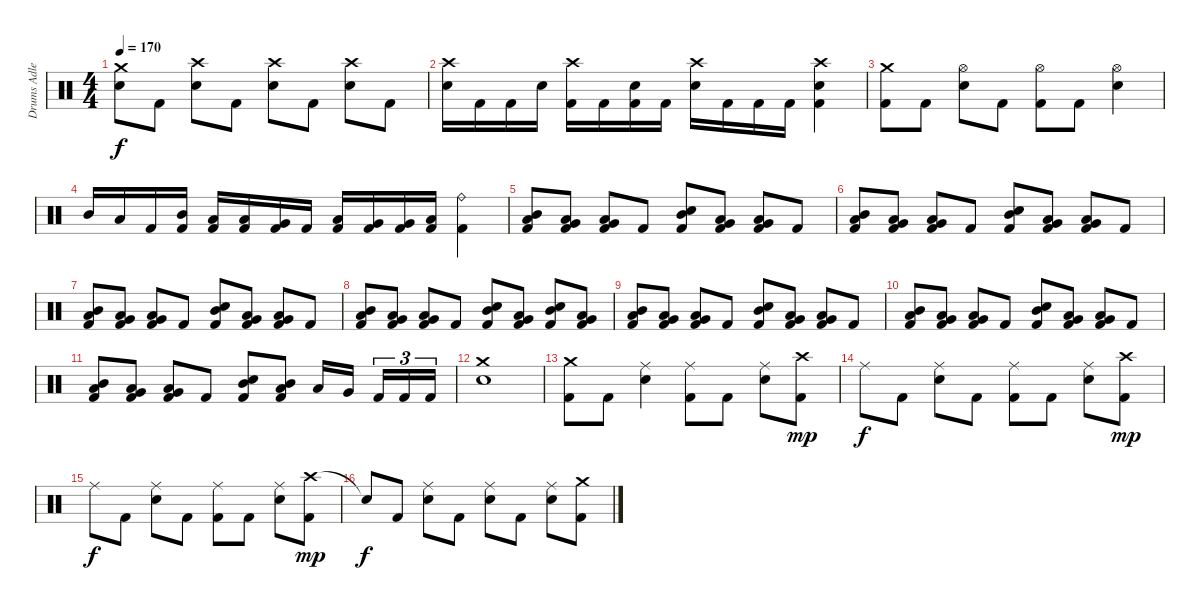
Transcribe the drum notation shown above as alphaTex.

\track ("Drums Adler" "Drums Adle") {instrument percussion}
\staff {score}
\articulation defaults
\ts (4 4)
\tempo 170
\clef neutral
\ks c
("Crash medium (hit)" "Snare (hit) 2").8{dy f} "Kick (hit) 2".8 ("Crash high (hit)" "Snare (hit) 2").8 "Kick (hit) 2".8 ("Crash high (hit)" "Snare (hit) 2").8 "Kick (hit) 2".8 ("Crash high (hit)" "Snare (hit) 2").8 "Kick (hit) 2".8 |
("Crash high (hit)" "Snare (hit) 2").16 "Kick (hit) 2".16 "Kick (hit) 2".16 "Snare (hit) 2".16 ("Crash high (hit)" "Kick (hit) 2").16 "Kick (hit) 2".16 ("Snare (hit) 2" "Kick (hit) 2").16 "Kick (hit) 2".16 ("Crash high (hit)" "Snare (hit) 2").16 "Kick (hit) 2".16 "Kick (hit) 2".16 "Kick (hit) 2".16 ("Crash high (hit)" "Snare (hit) 2" "Kick (hit) 2").4 |
("Crash medium (hit)" "Kick (hit) 2").8 "Kick (hit) 2".8 ("Hi-Hat (open)" "Snare (hit) 2").8 "Kick (hit) 2".8 ("Hi-Hat (open)" "Kick (hit) 2").8 "Kick (hit) 2".8 ("Hi-Hat (open)" "Snare (hit) 2").4 |
"Mid Tom (hit)".16 "Low Tom (hit)".16 "Kick (hit) 2".16 ("Mid Tom (hit)" "Kick (hit) 2").16 ("Low Tom (hit)" "Kick (hit) 2").16 ("Low Tom (hit)" "Kick (hit) 2").16 ("Very Low Tom (hit)" "Kick (hit) 2").16 "Kick (hit) 2".16 ("Low Tom (hit)" "Kick (hit) 2").16 ("Very Low Tom (hit)" "Kick (hit) 2").16 ("Very Low Tom (hit)" "Kick (hit) 2").16 ("Low Floor Tom (hit)" "Kick (hit) 2").16 ("Ride (bell)" "Kick (hit) 2").4 |
("Mid Tom (hit)" "Low Tom (hit)" "Kick (hit) 2").8 ("Low Tom (hit)" "Very Low Tom (hit)" "Kick (hit) 2").8 ("Low Floor Tom (hit)" "Very Low Tom (hit)" "Kick (hit) 2").8 "Kick (hit) 2".8 ("Mid Tom (hit)" "Snare (hit) 2" "Kick (hit) 2").8 ("Low Tom (hit)" "Very Low Tom (hit)" "Kick (hit) 2").8 ("Low Floor Tom (hit)" "Very Low Tom (hit)" "Kick (hit) 2").8 "Kick (hit) 2".8 |
("Mid Tom (hit)" "Low Tom (hit)" "Kick (hit) 2").8 ("Low Tom (hit)" "Very Low Tom (hit)" "Kick (hit) 2").8 ("Low Floor Tom (hit)" "Very Low Tom (hit)" "Kick (hit) 2").8 "Kick (hit) 2".8 ("Mid Tom (hit)" "Snare (hit) 2" "Kick (hit) 2").8 ("Low Tom (hit)" "Very Low Tom (hit)" "Kick (hit) 2").8 ("Low Floor Tom (hit)" "Very Low Tom (hit)" "Kick (hit) 2").8 "Kick (hit) 2".8 |
("Mid Tom (hit)" "Low Tom (hit)" "Kick (hit) 2").8 ("Low Tom (hit)" "Very Low Tom (hit)" "Kick (hit) 2").8 ("Low Floor Tom (hit)" "Very Low Tom (hit)" "Kick (hit) 2").8 "Kick (hit) 2".8 ("Mid Tom (hit)" "Snare (hit) 2" "Kick (hit) 2").8 ("Low Tom (hit)" "Very Low Tom (hit)" "Kick (hit) 2").8 ("Low Floor Tom (hit)" "Very Low Tom (hit)" "Kick (hit) 2").8 "Kick (hit) 2".8 |
("Mid Tom (hit)" "Low Tom (hit)" "Kick (hit) 2").8 ("Low Tom (hit)" "Very Low Tom (hit)" "Kick (hit) 2").8 ("Low Floor Tom (hit)" "Very Low Tom (hit)" "Kick (hit) 2").8 "Kick (hit) 2".8 ("Mid Tom (hit)" "Snare (hit) 2" "Kick (hit) 2").8 ("Low Tom (hit)" "Very Low Tom (hit)" "Kick (hit) 2").8 ("Mid Tom (hit)" "Snare (hit) 2" "Kick (hit) 2").8 ("Low Tom (hit)" "Very Low Tom (hit)" "Kick (hit) 2").8 |
("Mid Tom (hit)" "Low Tom (hit)" "Kick (hit) 2").8 ("Low Tom (hit)" "Very Low Tom (hit)" "Kick (hit) 2").8 ("Low Floor Tom (hit)" "Very Low Tom (hit)" "Kick (hit) 2").8 "Kick (hit) 2".8 ("Mid Tom (hit)" "Snare (hit) 2" "Kick (hit) 2").8 ("Low Tom (hit)" "Very Low Tom (hit)" "Kick (hit) 2").8 ("Low Floor Tom (hit)" "Very Low Tom (hit)" "Kick (hit) 2").8 "Kick (hit) 2".8 |
("Mid Tom (hit)" "Low Tom (hit)" "Kick (hit) 2").8 ("Low Tom (hit)" "Very Low Tom (hit)" "Kick (hit) 2").8 ("Low Floor Tom (hit)" "Very Low Tom (hit)" "Kick (hit) 2").8 "Kick (hit) 2".8 ("Mid Tom (hit)" "Snare (hit) 2" "Kick (hit) 2").8 ("Low Tom (hit)" "Very Low Tom (hit)" "Kick (hit) 2").8 ("Low Floor Tom (hit)" "Very Low Tom (hit)" "Kick (hit) 2").8 "Kick (hit) 2".8 |
("Mid Tom (hit)" "Low Tom (hit)" "Kick (hit) 2").8 ("Low Tom (hit)" "Very Low Tom (hit)" "Kick (hit) 2").8 ("Low Floor Tom (hit)" "Very Low Tom (hit)" "Kick (hit) 2").8 "Kick (hit) 2".8 ("Mid Tom (hit)" "Snare (hit) 2" "Kick (hit) 2").8 ("Low Tom (hit)" "Mid Tom (hit)" "Kick (hit) 2").8 "Low Tom (hit)".16 "Very Low Tom (hit)".16{beam splitsecondary} "Kick (hit) 2".16{tu (3 2)} "Kick (hit) 2".16{tu (3 2)} "Kick (hit) 2".16{tu (3 2)} |
("Crash medium (hit)" "Snare (hit) 2").1 |
("Crash medium (hit)" "Kick (hit) 2").8 "Kick (hit) 2".8 ("Ride (middle)" "Snare (hit) 2").4 ("Ride (middle)" "Kick (hit) 2").8 "Kick (hit) 2".8 ("Ride (middle)" "Snare (hit) 2").8 ("Crash high (hit)" "Kick (hit) 2").8{dy mp} |
"Ride (middle)".8{dy f} "Kick (hit) 2".8 ("Ride (middle)" "Snare (hit) 2").8 "Kick (hit) 2".8 ("Ride (middle)" "Kick (hit) 2").8 "Kick (hit) 2".8 ("Ride (middle)" "Snare (hit) 2").8 ("Crash high (hit)" "Kick (hit) 2").8{dy mp} |
"Ride (middle)".8{dy f} "Kick (hit) 2".8 ("Ride (middle)" "Snare (hit) 2").8 "Kick (hit) 2".8 ("Ride (middle)" "Kick (hit) 2").8 "Kick (hit) 2".8 ("Ride (middle)" "Snare (hit) 2").8 ("Crash high (hit)" "Kick (hit) 2").8{dy mp} |
"Snare (hit)"{t}.8{dy f} "Kick (hit) 2".8 ("Ride (middle)" "Snare (hit) 2").8 "Kick (hit) 2".8 ("Ride (middle)" "Snare (hit) 2").8 "Kick (hit) 2".8 ("Ride (middle)" "Snare (hit) 2").8 ("Crash medium (hit)" "Kick (hit) 2").8
